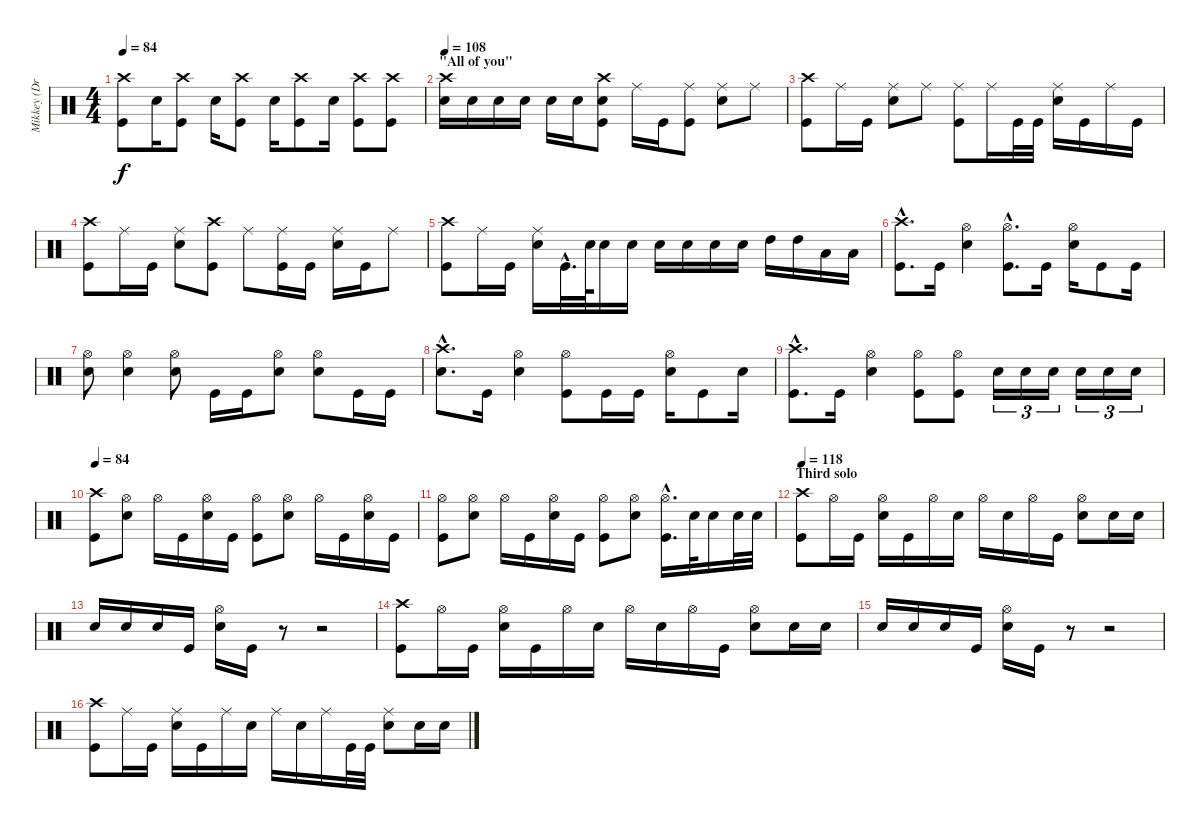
\track ("Mikkey (Drums)" "Mikkey (Dr") {instrument percussion}
\staff {score}
\articulation defaults
\ts (4 4)
\tempo 84
\clef neutral
\ks c
("Crash high (hit)" "Kick (hit)").8{dy f} "Electric Snare (hit)".16 ("Crash high (hit)" "Kick (hit)").8 "Electric Snare (hit)".16 ("Crash high (hit)" "Kick (hit)").8 "Electric Snare (hit)".16 ("Crash high (hit)" "Kick (hit)").8 "Electric Snare (hit)".16 ("Crash high (hit)" "Kick (hit)").8 ("Crash high (hit)" "Kick (hit)").8 |
\section ("" "\"All of you\"")
\tempo 108
("Crash high (hit)" "Electric Snare (hit)").16 "Electric Snare (hit)".16 "Electric Snare (hit)".16 "Electric Snare (hit)".16 "Electric Snare (hit)".16 "Electric Snare (hit)".16 ("Crash high (hit)" "Electric Snare (hit)" "Kick (hit)").8 "Ride (middle)".16 "Kick (hit)".16 ("Ride (middle)" "Kick (hit)").8 ("Ride (middle)" "Electric Snare (hit)").8 "Ride (middle)".8 |
("Crash high (hit)" "Kick (hit)").8 "Ride (middle)".16 "Kick (hit)".16 ("Ride (middle)" "Electric Snare (hit)").8 "Ride (middle)".8 ("Ride (middle)" "Kick (hit)").8 "Ride (middle)".16 "Kick (hit)".32 "Kick (hit)".32 ("Ride (middle)" "Electric Snare (hit)").16 "Kick (hit)".16 "Ride (middle)".16 "Kick (hit)".16 |
("Crash high (hit)" "Kick (hit)").8 "Ride (middle)".16 "Kick (hit)".16 ("Ride (middle)" "Electric Snare (hit)").8 ("Crash high (hit)" "Kick (hit)").8 "Ride (middle)".8 ("Ride (middle)" "Kick (hit)").16 "Kick (hit)".16 ("Ride (middle)" "Electric Snare (hit)").16 "Kick (hit)".16 "Ride (middle)".8 |
("Crash high (hit)" "Kick (hit)").8 "Ride (middle)".16 "Kick (hit)".16 ("Ride (middle)" "Electric Snare (hit)").16 "Kick (hit)"{hac}.32{d} "Electric Snare (hit)".64 "Electric Snare (hit)".16 "Electric Snare (hit)".16 "Electric Snare (hit)".16 "Electric Snare (hit)".16 "Electric Snare (hit)".16 "Electric Snare (hit)".16 "High Tom (hit)".16 "High Tom (hit)".16 "Low Tom (hit)".16 "Low Tom (hit)".16 |
("Crash high (hit)"{hac} "Kick (hit)"{hac}).8{d} "Kick (hit)".16 ("Hi-Hat (open)" "Electric Snare (hit)").4 ("Hi-Hat (open)"{hac} "Kick (hit)"{hac}).8{d} "Kick (hit)".16 ("Hi-Hat (open)" "Electric Snare (hit)").16 "Kick (hit)".8 "Kick (hit)".16 |
("Hi-Hat (open)" "Electric Snare (hit)").8 ("Hi-Hat (open)" "Electric Snare (hit)").4 ("Hi-Hat (open)" "Electric Snare (hit)").8 "Kick (hit)".16 "Kick (hit)".16 ("Hi-Hat (open)" "Electric Snare (hit)").8 ("Hi-Hat (open)" "Electric Snare (hit)").8 "Kick (hit)".16 "Kick (hit)".16 |
("Crash high (hit)"{hac} "Electric Snare (hit)"{hac}).8{d} "Kick (hit)".16 ("Hi-Hat (open)" "Electric Snare (hit)").4 ("Hi-Hat (open)" "Kick (hit)").8 "Kick (hit)".16 "Kick (hit)".16 ("Hi-Hat (open)" "Electric Snare (hit)").16 "Kick (hit)".8 "Electric Snare (hit)".16 |
("Crash high (hit)"{hac} "Kick (hit)"{hac}).8{d} "Kick (hit)".16 ("Hi-Hat (open)" "Electric Snare (hit)").4 ("Hi-Hat (open)" "Kick (hit)").8 ("Hi-Hat (open)" "Kick (hit)").8 "Electric Snare (hit)".16{tu (3 2)} "Electric Snare (hit)".16{tu (3 2)} "Electric Snare (hit)".16{tu (3 2)} "Electric Snare (hit)".16{tu (3 2)} "Electric Snare (hit)".16{tu (3 2)} "Electric Snare (hit)".16{tu (3 2)} |
\tempo 84
("Crash high (hit)" "Kick (hit)").8 ("Hi-Hat (open)" "Electric Snare (hit)").8 "Hi-Hat (open)".16 "Kick (hit)".16 ("Hi-Hat (open)" "Electric Snare (hit)").16 "Kick (hit)".16 ("Hi-Hat (open)" "Kick (hit)").8 ("Hi-Hat (open)" "Electric Snare (hit)").8 "Hi-Hat (open)".16 "Kick (hit)".16 ("Hi-Hat (open)" "Electric Snare (hit)").16 "Kick (hit)".16 |
("Hi-Hat (open)" "Kick (hit)").8 ("Hi-Hat (open)" "Electric Snare (hit)").8 "Hi-Hat (open)".16 "Kick (hit)".16 ("Hi-Hat (open)" "Electric Snare (hit)").16 "Kick (hit)".16 ("Hi-Hat (open)" "Kick (hit)").8 ("Hi-Hat (open)" "Electric Snare (hit)").8 ("Hi-Hat (open)"{hac} "Kick (hit)"{hac}).16{d} "Electric Snare (hit)".32 "Electric Snare (hit)".16 "Electric Snare (hit)".32 "Electric Snare (hit)".32 |
\section ("" "Third solo")
\tempo 118
("Crash high (hit)" "Kick (hit)").8 "Hi-Hat (open)".16 "Kick (hit)".16 ("Hi-Hat (open)" "Electric Snare (hit)").16 "Kick (hit)".16 "Hi-Hat (open)".16 "Electric Snare (hit)".16 "Hi-Hat (open)".16 "Electric Snare (hit)".16 "Hi-Hat (open)".16 "Kick (hit)".16 ("Hi-Hat (open)" "Electric Snare (hit)").8 "Electric Snare (hit)".16 "Electric Snare (hit)".16 |
"Electric Snare (hit)".16 "Electric Snare (hit)".16 "Electric Snare (hit)".16 "Kick (hit)".16 ("Hi-Hat (open)" "Electric Snare (hit)").16 "Kick (hit)".16 r.8 r.2 |
("Crash high (hit)" "Kick (hit)").8 "Hi-Hat (open)".16 "Kick (hit)".16 ("Hi-Hat (open)" "Electric Snare (hit)").16 "Kick (hit)".16 "Hi-Hat (open)".16 "Electric Snare (hit)".16 "Hi-Hat (open)".16 "Electric Snare (hit)".16 "Hi-Hat (open)".16 "Kick (hit)".16 ("Hi-Hat (open)" "Electric Snare (hit)").8 "Electric Snare (hit)".16 "Electric Snare (hit)".16 |
"Electric Snare (hit)".16 "Electric Snare (hit)".16 "Electric Snare (hit)".16 "Kick (hit)".16 ("Hi-Hat (open)" "Electric Snare (hit)").16 "Kick (hit)".16 r.8 r.2 |
("Crash high (hit)" "Kick (hit)").8 "Ride (middle)".16 "Kick (hit)".16 ("Ride (middle)" "Electric Snare (hit)").16 "Kick (hit)".16 "Ride (middle)".16 "Electric Snare (hit)".16 "Ride (middle)".16 "Electric Snare (hit)".16 "Ride (middle)".16 "Kick (hit)".32 "Kick (hit)".32 ("Ride (middle)" "Electric Snare (hit)").8 "Electric Snare (hit)".16 "Electric Snare (hit)".16
